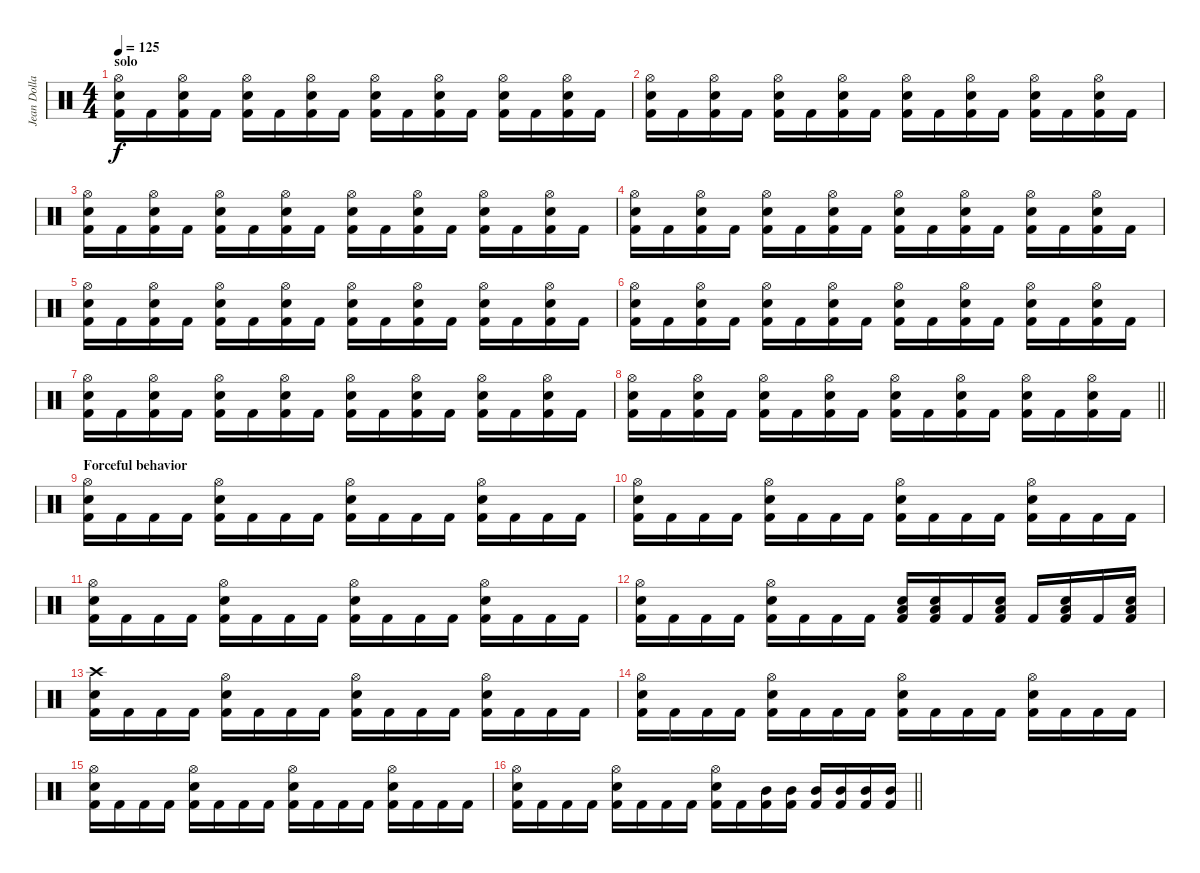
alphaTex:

\track ("Jean Dollabella" "Jean Dolla") {instrument percussion}
\staff {score}
\articulation defaults
\ts (4 4)
\section ("" "solo")
\tempo 125
\clef neutral
\ks c
("Hi-Hat (open)" "Snare (hit) 2" "Kick (hit) 2").16{dy f} "Kick (hit) 2".16 ("Hi-Hat (open)" "Snare (hit) 2" "Kick (hit) 2").16 "Kick (hit) 2".16 ("Hi-Hat (open)" "Snare (hit) 2" "Kick (hit) 2").16 "Kick (hit) 2".16 ("Hi-Hat (open)" "Snare (hit) 2" "Kick (hit) 2").16 "Kick (hit) 2".16 ("Hi-Hat (open)" "Snare (hit) 2" "Kick (hit) 2").16 "Kick (hit) 2".16 ("Hi-Hat (open)" "Snare (hit) 2" "Kick (hit) 2").16 "Kick (hit) 2".16 ("Hi-Hat (open)" "Snare (hit) 2" "Kick (hit) 2").16 "Kick (hit) 2".16 ("Hi-Hat (open)" "Snare (hit) 2" "Kick (hit) 2").16 "Kick (hit) 2".16 |
("Hi-Hat (open)" "Snare (hit) 2" "Kick (hit) 2").16 "Kick (hit) 2".16 ("Hi-Hat (open)" "Snare (hit) 2" "Kick (hit) 2").16 "Kick (hit) 2".16 ("Hi-Hat (open)" "Snare (hit) 2" "Kick (hit) 2").16 "Kick (hit) 2".16 ("Hi-Hat (open)" "Snare (hit) 2" "Kick (hit) 2").16 "Kick (hit) 2".16 ("Hi-Hat (open)" "Snare (hit) 2" "Kick (hit) 2").16 "Kick (hit) 2".16 ("Hi-Hat (open)" "Snare (hit) 2" "Kick (hit) 2").16 "Kick (hit) 2".16 ("Hi-Hat (open)" "Snare (hit) 2" "Kick (hit) 2").16 "Kick (hit) 2".16 ("Hi-Hat (open)" "Snare (hit) 2" "Kick (hit) 2").16 "Kick (hit) 2".16 |
("Hi-Hat (open)" "Snare (hit) 2" "Kick (hit) 2").16 "Kick (hit) 2".16 ("Hi-Hat (open)" "Snare (hit) 2" "Kick (hit) 2").16 "Kick (hit) 2".16 ("Hi-Hat (open)" "Snare (hit) 2" "Kick (hit) 2").16 "Kick (hit) 2".16 ("Hi-Hat (open)" "Snare (hit) 2" "Kick (hit) 2").16 "Kick (hit) 2".16 ("Hi-Hat (open)" "Snare (hit) 2" "Kick (hit) 2").16 "Kick (hit) 2".16 ("Hi-Hat (open)" "Snare (hit) 2" "Kick (hit) 2").16 "Kick (hit) 2".16 ("Hi-Hat (open)" "Snare (hit) 2" "Kick (hit) 2").16 "Kick (hit) 2".16 ("Hi-Hat (open)" "Snare (hit) 2" "Kick (hit) 2").16 "Kick (hit) 2".16 |
("Hi-Hat (open)" "Snare (hit) 2" "Kick (hit) 2").16 "Kick (hit) 2".16 ("Hi-Hat (open)" "Snare (hit) 2" "Kick (hit) 2").16 "Kick (hit) 2".16 ("Hi-Hat (open)" "Snare (hit) 2" "Kick (hit) 2").16 "Kick (hit) 2".16 ("Hi-Hat (open)" "Snare (hit) 2" "Kick (hit) 2").16 "Kick (hit) 2".16 ("Hi-Hat (open)" "Snare (hit) 2" "Kick (hit) 2").16 "Kick (hit) 2".16 ("Hi-Hat (open)" "Snare (hit) 2" "Kick (hit) 2").16 "Kick (hit) 2".16 ("Hi-Hat (open)" "Snare (hit) 2" "Kick (hit) 2").16 "Kick (hit) 2".16 ("Hi-Hat (open)" "Snare (hit) 2" "Kick (hit) 2").16 "Kick (hit) 2".16 |
("Hi-Hat (open)" "Snare (hit) 2" "Kick (hit) 2").16 "Kick (hit) 2".16 ("Hi-Hat (open)" "Snare (hit) 2" "Kick (hit) 2").16 "Kick (hit) 2".16 ("Hi-Hat (open)" "Snare (hit) 2" "Kick (hit) 2").16 "Kick (hit) 2".16 ("Hi-Hat (open)" "Snare (hit) 2" "Kick (hit) 2").16 "Kick (hit) 2".16 ("Hi-Hat (open)" "Snare (hit) 2" "Kick (hit) 2").16 "Kick (hit) 2".16 ("Hi-Hat (open)" "Snare (hit) 2" "Kick (hit) 2").16 "Kick (hit) 2".16 ("Hi-Hat (open)" "Snare (hit) 2" "Kick (hit) 2").16 "Kick (hit) 2".16 ("Hi-Hat (open)" "Snare (hit) 2" "Kick (hit) 2").16 "Kick (hit) 2".16 |
("Hi-Hat (open)" "Snare (hit) 2" "Kick (hit) 2").16 "Kick (hit) 2".16 ("Hi-Hat (open)" "Snare (hit) 2" "Kick (hit) 2").16 "Kick (hit) 2".16 ("Hi-Hat (open)" "Snare (hit) 2" "Kick (hit) 2").16 "Kick (hit) 2".16 ("Hi-Hat (open)" "Snare (hit) 2" "Kick (hit) 2").16 "Kick (hit) 2".16 ("Hi-Hat (open)" "Snare (hit) 2" "Kick (hit) 2").16 "Kick (hit) 2".16 ("Hi-Hat (open)" "Snare (hit) 2" "Kick (hit) 2").16 "Kick (hit) 2".16 ("Hi-Hat (open)" "Snare (hit) 2" "Kick (hit) 2").16 "Kick (hit) 2".16 ("Hi-Hat (open)" "Snare (hit) 2" "Kick (hit) 2").16 "Kick (hit) 2".16 |
("Hi-Hat (open)" "Snare (hit) 2" "Kick (hit) 2").16 "Kick (hit) 2".16 ("Hi-Hat (open)" "Snare (hit) 2" "Kick (hit) 2").16 "Kick (hit) 2".16 ("Hi-Hat (open)" "Snare (hit) 2" "Kick (hit) 2").16 "Kick (hit) 2".16 ("Hi-Hat (open)" "Snare (hit) 2" "Kick (hit) 2").16 "Kick (hit) 2".16 ("Hi-Hat (open)" "Snare (hit) 2" "Kick (hit) 2").16 "Kick (hit) 2".16 ("Hi-Hat (open)" "Snare (hit) 2" "Kick (hit) 2").16 "Kick (hit) 2".16 ("Hi-Hat (open)" "Snare (hit) 2" "Kick (hit) 2").16 "Kick (hit) 2".16 ("Hi-Hat (open)" "Snare (hit) 2" "Kick (hit) 2").16 "Kick (hit) 2".16 |
\barLineRight lightlight
("Hi-Hat (open)" "Snare (hit) 2" "Kick (hit) 2").16 "Kick (hit) 2".16 ("Hi-Hat (open)" "Snare (hit) 2" "Kick (hit) 2").16 "Kick (hit) 2".16 ("Hi-Hat (open)" "Snare (hit) 2" "Kick (hit) 2").16 "Kick (hit) 2".16 ("Hi-Hat (open)" "Snare (hit) 2" "Kick (hit) 2").16 "Kick (hit) 2".16 ("Hi-Hat (open)" "Snare (hit) 2" "Kick (hit) 2").16 "Kick (hit) 2".16 ("Hi-Hat (open)" "Snare (hit) 2" "Kick (hit) 2").16 "Kick (hit) 2".16 ("Hi-Hat (open)" "Snare (hit) 2" "Kick (hit) 2").16 "Kick (hit) 2".16 ("Hi-Hat (open)" "Snare (hit) 2" "Kick (hit) 2").16 "Kick (hit) 2".16 |
\section ("" "Forceful behavior")
("Hi-Hat (open)" "Snare (hit) 2" "Kick (hit) 2").16 "Kick (hit) 2".16 "Kick (hit) 2".16 "Kick (hit) 2".16 ("Hi-Hat (open)" "Snare (hit) 2" "Kick (hit) 2").16 "Kick (hit) 2".16 "Kick (hit) 2".16 "Kick (hit) 2".16 ("Hi-Hat (open)" "Snare (hit) 2" "Kick (hit) 2").16 "Kick (hit) 2".16 "Kick (hit) 2".16 "Kick (hit) 2".16 ("Hi-Hat (open)" "Snare (hit) 2" "Kick (hit) 2").16 "Kick (hit) 2".16 "Kick (hit) 2".16 "Kick (hit) 2".16 |
("Hi-Hat (open)" "Snare (hit) 2" "Kick (hit) 2").16 "Kick (hit) 2".16 "Kick (hit) 2".16 "Kick (hit) 2".16 ("Hi-Hat (open)" "Snare (hit) 2" "Kick (hit) 2").16 "Kick (hit) 2".16 "Kick (hit) 2".16 "Kick (hit) 2".16 ("Hi-Hat (open)" "Snare (hit) 2" "Kick (hit) 2").16 "Kick (hit) 2".16 "Kick (hit) 2".16 "Kick (hit) 2".16 ("Hi-Hat (open)" "Snare (hit) 2" "Kick (hit) 2").16 "Kick (hit) 2".16 "Kick (hit) 2".16 "Kick (hit) 2".16 |
("Hi-Hat (open)" "Snare (hit) 2" "Kick (hit) 2").16 "Kick (hit) 2".16 "Kick (hit) 2".16 "Kick (hit) 2".16 ("Hi-Hat (open)" "Snare (hit) 2" "Kick (hit) 2").16 "Kick (hit) 2".16 "Kick (hit) 2".16 "Kick (hit) 2".16 ("Hi-Hat (open)" "Snare (hit) 2" "Kick (hit) 2").16 "Kick (hit) 2".16 "Kick (hit) 2".16 "Kick (hit) 2".16 ("Hi-Hat (open)" "Snare (hit) 2" "Kick (hit) 2").16 "Kick (hit) 2".16 "Kick (hit) 2".16 "Kick (hit) 2".16 |
("Hi-Hat (open)" "Snare (hit) 2" "Kick (hit) 2").16 "Kick (hit) 2".16 "Kick (hit) 2".16 "Kick (hit) 2".16 ("Hi-Hat (open)" "Snare (hit) 2" "Kick (hit) 2").16 "Kick (hit) 2".16 "Kick (hit) 2".16 "Kick (hit) 2".16 ("Low Floor Tom (hit)" "Snare (hit) 2" "Kick (hit) 2").16 ("Low Floor Tom (hit)" "Snare (hit) 2" "Kick (hit) 2").16 "Kick (hit) 2".16 ("Low Floor Tom (hit)" "Snare (hit) 2" "Kick (hit) 2").16 "Kick (hit) 2".16 ("Low Floor Tom (hit)" "Snare (hit) 2" "Kick (hit) 2").16 "Kick (hit) 2".16 ("Low Floor Tom (hit)" "Snare (hit) 2" "Kick (hit) 2").16 |
("Crash high (hit)" "Snare (hit) 2" "Kick (hit) 2").16 "Kick (hit) 2".16 "Kick (hit) 2".16 "Kick (hit) 2".16 ("Hi-Hat (open)" "Snare (hit) 2" "Kick (hit) 2").16 "Kick (hit) 2".16 "Kick (hit) 2".16 "Kick (hit) 2".16 ("Hi-Hat (open)" "Snare (hit) 2" "Kick (hit) 2").16 "Kick (hit) 2".16 "Kick (hit) 2".16 "Kick (hit) 2".16 ("Hi-Hat (open)" "Snare (hit) 2" "Kick (hit) 2").16 "Kick (hit) 2".16 "Kick (hit) 2".16 "Kick (hit) 2".16 |
("Hi-Hat (open)" "Snare (hit) 2" "Kick (hit) 2").16 "Kick (hit) 2".16 "Kick (hit) 2".16 "Kick (hit) 2".16 ("Hi-Hat (open)" "Snare (hit) 2" "Kick (hit) 2").16 "Kick (hit) 2".16 "Kick (hit) 2".16 "Kick (hit) 2".16 ("Hi-Hat (open)" "Snare (hit) 2" "Kick (hit) 2").16 "Kick (hit) 2".16 "Kick (hit) 2".16 "Kick (hit) 2".16 ("Hi-Hat (open)" "Snare (hit) 2" "Kick (hit) 2").16 "Kick (hit) 2".16 "Kick (hit) 2".16 "Kick (hit) 2".16 |
("Hi-Hat (open)" "Snare (hit) 2" "Kick (hit) 2").16 "Kick (hit) 2".16 "Kick (hit) 2".16 "Kick (hit) 2".16 ("Hi-Hat (open)" "Snare (hit) 2" "Kick (hit) 2").16 "Kick (hit) 2".16 "Kick (hit) 2".16 "Kick (hit) 2".16 ("Hi-Hat (open)" "Snare (hit) 2" "Kick (hit) 2").16 "Kick (hit) 2".16 "Kick (hit) 2".16 "Kick (hit) 2".16 ("Hi-Hat (open)" "Snare (hit) 2" "Kick (hit) 2").16 "Kick (hit) 2".16 "Kick (hit) 2".16 "Kick (hit) 2".16 |
\barLineRight lightlight
("Hi-Hat (open)" "Snare (hit) 2" "Kick (hit) 2").16 "Kick (hit) 2".16 "Kick (hit) 2".16 "Kick (hit) 2".16 ("Hi-Hat (open)" "Snare (hit) 2" "Kick (hit) 2").16 "Kick (hit) 2".16 "Kick (hit) 2".16 "Kick (hit) 2".16 ("Hi-Hat (open)" "Snare (hit) 2" "Kick (hit) 2").16 "Kick (hit) 2".16 ("Mid Tom (hit)" "Kick (hit) 2").16 ("Mid Tom (hit)" "Kick (hit) 2").16 ("Mid Tom (hit)" "Kick (hit) 2").16 ("Mid Tom (hit)" "Kick (hit) 2").16 ("Mid Tom (hit)" "Kick (hit) 2").16 ("Mid Tom (hit)" "Kick (hit) 2").16
